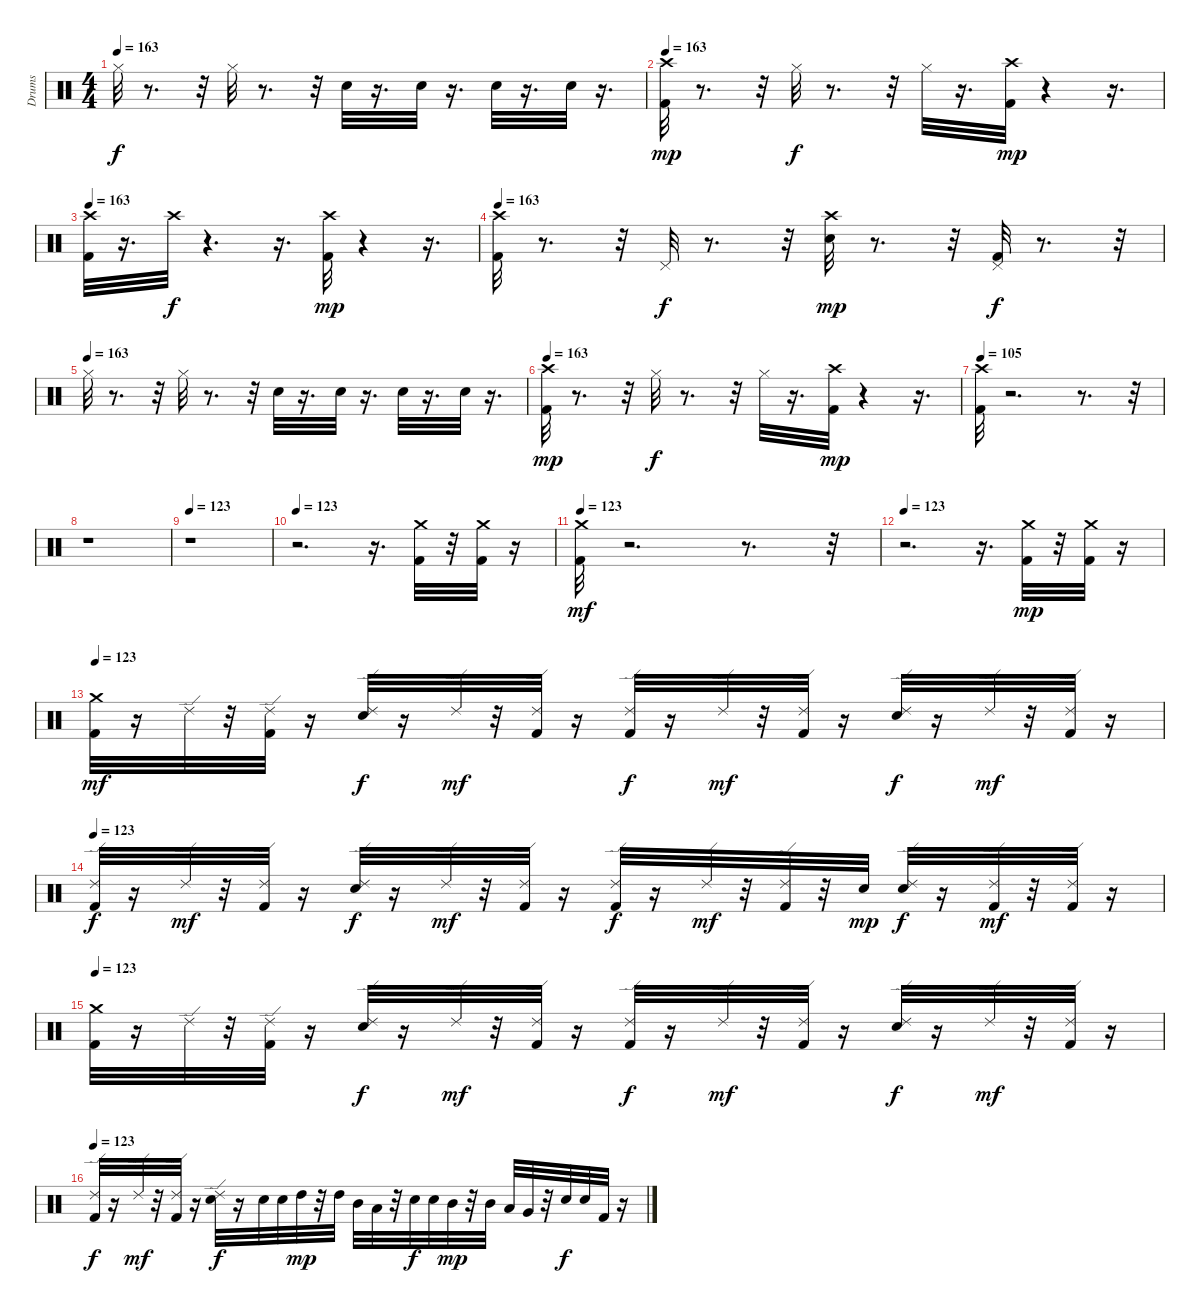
\track ("Drums" "Drums") {instrument percussion}
\staff {score}
\articulation defaults
\ts (4 4)
\tempo 163
\clef neutral
\ks c "Hi-Hat (closed)".32{dy f}
r.8{d} r.32 "Hi-Hat (closed)".32 r.8{d} r.32 "Snare (hit) 2".32 r.16{d} "Snare (hit) 2".32 r.16{d} "Snare (hit) 2".32 r.16{d} "Snare (hit) 2".32 r.16{d} |
\tempo 163
("Kick (hit) 2" "Crash high (hit)").32{dy mp} r.8{d} r.32 "Hi-Hat (closed)".32{dy f} r.8{d} r.32 "Hi-Hat (closed)".32 r.16{d} ("Kick (hit) 2" "Crash high (hit)").32{dy mp} r.4 r.16{d} |
\tempo 163
("Kick (hit) 2" "Crash high (hit)").32 r.16{d} "Crash high (hit)".32{dy f} r.4{d} r.16{d} ("Kick (hit) 2" "Crash high (hit)").32{dy mp} r.4 r.16{d} |
\tempo 163
("Kick (hit) 2" "Crash high (hit)").32 r.8{d} r.32 "Pedal Hi-Hat (hit)".32{dy f} r.8{d} r.32 ("Snare (hit) 2" "Crash high (hit)").32{dy mp} r.8{d} r.32 ("Kick (hit) 2" "Pedal Hi-Hat (hit)").32{dy f} r.8{d} r.32 |
\tempo (163)
"Hi-Hat (closed)".32 r.8{d} r.32 "Hi-Hat (closed)".32 r.8{d} r.32 "Snare (hit) 2".32 r.16{d} "Snare (hit) 2".32 r.16{d} "Snare (hit) 2".32 r.16{d} "Snare (hit) 2".32 r.16{d} |
\tempo 163
("Kick (hit) 2" "Crash high (hit)").32{dy mp} r.8{d} r.32 "Hi-Hat (closed)".32{dy f} r.8{d} r.32 "Hi-Hat (closed)".32 r.16{d} ("Kick (hit) 2" "Crash high (hit)").32{dy mp} r.4 r.16{d} |
\tempo 105
("Kick (hit) 2" "Crash high (hit)").32 r.2{d} r.8{d} r.32 |
r.1 |
\tempo 123
r.1 |
\tempo 123
r.2{d} r.16{d} ("Kick (hit) 2" "Crash medium (hit)").32 r.32 ("Kick (hit) 2" "Crash medium (hit)").32 r.16 |
\tempo 123
("Kick (hit) 2" "Crash medium (hit)").32{dy mf} r.2{d} r.8{d} r.32 |
\tempo 123
r.2{d} r.16{d} ("Kick (hit) 2" "Crash medium (hit)").32{dy mp} r.32 ("Kick (hit) 2" "Crash medium (hit)").32 r.16 |
\tempo 123
("Kick (hit) 2" "Crash medium (hit)").32{dy mf} r.16 "Ride (edge) 2".32 r.32 ("Kick (hit) 2" "Ride (edge) 2").32 r.16 ("Snare (hit) 2" "Ride (edge) 2").32{dy f} r.16 "Ride (edge) 2".32{dy mf} r.32 ("Kick (hit) 2" "Ride (edge) 2").32 r.16 ("Kick (hit) 2" "Ride (edge) 2").32{dy f} r.16 "Ride (edge) 2".32{dy mf} r.32 ("Kick (hit) 2" "Ride (edge) 2").32 r.16 ("Snare (hit) 2" "Ride (edge) 2").32{dy f} r.16 "Ride (edge) 2".32{dy mf} r.32 ("Kick (hit) 2" "Ride (edge) 2").32 r.16 |
\tempo 123
("Kick (hit) 2" "Ride (edge) 2").32{dy f} r.16 "Ride (edge) 2".32{dy mf} r.32 ("Kick (hit) 2" "Ride (edge) 2").32 r.16 ("Snare (hit) 2" "Ride (edge) 2").32{dy f} r.16 "Ride (edge) 2".32{dy mf} r.32 ("Kick (hit) 2" "Ride (edge) 2").32 r.16 ("Kick (hit) 2" "Ride (edge) 2").32{dy f} r.16 "Ride (edge) 2".32{dy mf} r.32 ("Kick (hit) 2" "Ride (edge) 2").32 r.32 "Snare (hit) 2".32{dy mp} ("Snare (hit) 2" "Ride (edge) 2").32{dy f} r.16 ("Kick (hit) 2" "Ride (edge) 2").32{dy mf} r.32 ("Kick (hit) 2" "Ride (edge) 2").32 r.16 |
\tempo 123
("Kick (hit) 2" "Crash medium (hit)").32 r.16 "Ride (edge) 2".32 r.32 ("Kick (hit) 2" "Ride (edge) 2").32 r.16 ("Snare (hit) 2" "Ride (edge) 2").32{dy f} r.16 "Ride (edge) 2".32{dy mf} r.32 ("Kick (hit) 2" "Ride (edge) 2").32 r.16 ("Kick (hit) 2" "Ride (edge) 2").32{dy f} r.16 "Ride (edge) 2".32{dy mf} r.32 ("Kick (hit) 2" "Ride (edge) 2").32 r.16 ("Snare (hit) 2" "Ride (edge) 2").32{dy f} r.16 "Ride (edge) 2".32{dy mf} r.32 ("Kick (hit) 2" "Ride (edge) 2").32 r.16 |
\tempo 123
("Kick (hit) 2" "Ride (edge) 2").32{dy f} r.16 "Ride (edge) 2".32{dy mf} r.32 ("Kick (hit) 2" "Ride (edge) 2").32 r.16 ("Snare (hit) 2" "Ride (edge) 2").32{dy f} r.16 "Snare (hit) 2".32 "Snare (hit) 2".32 "High Tom (hit)".32{dy mp} r.32 "High Tom (hit)".32 "Mid Tom (hit)".32 "Low Tom (hit)".32 r.32 "Snare (hit) 2".32{dy f} "Snare (hit) 2".32 "Mid Tom (hit)".32{dy mp} r.32 "Mid Tom (hit)".32 "Low Tom (hit)".32 "Very Low Tom (hit)".32 r.32 "Snare (hit) 2".32{dy f} "Snare (hit) 2".32 "Kick (hit) 2".32 r.16
